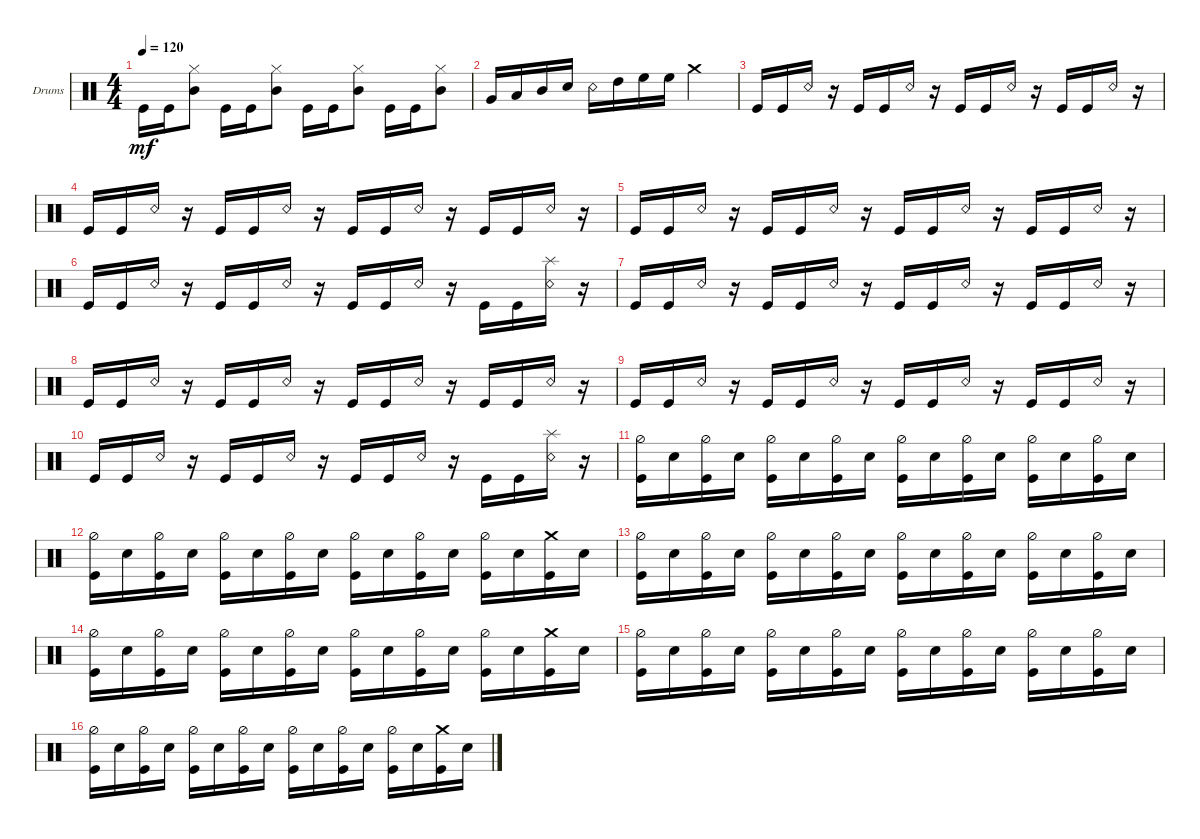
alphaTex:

\defaultSystemsLayout 4
\bracketExtendMode groupsimilarinstruments
\firstSystemTrackNameOrientation horizontal
\otherSystemsTrackNameOrientation horizontal
\track ("Drumkit" "Drums") {instrument percussion}
\staff {score}
\articulation defaults
\ts (4 4)
\tempo 120
\clef neutral
\ks c "Kick (hit)".16{dy mf} "Kick (hit)".16
("Mid Tom (hit)" "Hi-Hat (closed)").8 "Kick (hit)".16 "Kick (hit)".16 ("Mid Tom (hit)" "Hi-Hat (closed)").8 "Kick (hit)".16 "Kick (hit)".16 ("Mid Tom (hit)" "Hi-Hat (closed)").8 "Kick (hit)".16 "Kick (hit)".16 ("Mid Tom (hit)" "Hi-Hat (closed)").8 |
"Very Low Tom (hit)".16 "Low Tom (hit)".16 "Mid Tom (hit)".16 "Snare (hit) 2".16 "Snare (rim shot)".16 "High Tom (hit)".16 "High Floor Tom (hit)".16 "High Floor Tom (hit)".16 "Crash medium (hit)".2 |
"Kick (hit)".16 "Kick (hit)".16 "Snare (rim shot)".16 r.16 "Kick (hit)".16 "Kick (hit)".16 "Snare (rim shot)".16 r.16 "Kick (hit)".16 "Kick (hit)".16 "Snare (rim shot)".16 r.16 "Kick (hit)".16 "Kick (hit)".16 "Snare (rim shot)".16 r.16 |
"Kick (hit)".16 "Kick (hit)".16 "Snare (rim shot)".16 r.16 "Kick (hit)".16 "Kick (hit)".16 "Snare (rim shot)".16 r.16 "Kick (hit)".16 "Kick (hit)".16 "Snare (rim shot)".16 r.16 "Kick (hit)".16 "Kick (hit)".16 "Snare (rim shot)".16 r.16 |
"Kick (hit)".16 "Kick (hit)".16 "Snare (rim shot)".16 r.16 "Kick (hit)".16 "Kick (hit)".16 "Snare (rim shot)".16 r.16 "Kick (hit)".16 "Kick (hit)".16 "Snare (rim shot)".16 r.16 "Kick (hit)".16 "Kick (hit)".16 "Snare (rim shot)".16 r.16 |
"Kick (hit)".16 "Kick (hit)".16 "Snare (rim shot)".16 r.16 "Kick (hit)".16 "Kick (hit)".16 "Snare (rim shot)".16 r.16 "Kick (hit)".16 "Kick (hit)".16 "Snare (rim shot)".16 r.16 "Kick (hit)".16 "Kick (hit)".16 ("Snare (rim shot)" "Splash (hit)").16 r.16 |
"Kick (hit)".16 "Kick (hit)".16 "Snare (rim shot)".16 r.16 "Kick (hit)".16 "Kick (hit)".16 "Snare (rim shot)".16 r.16 "Kick (hit)".16 "Kick (hit)".16 "Snare (rim shot)".16 r.16 "Kick (hit)".16 "Kick (hit)".16 "Snare (rim shot)".16 r.16 |
"Kick (hit)".16 "Kick (hit)".16 "Snare (rim shot)".16 r.16 "Kick (hit)".16 "Kick (hit)".16 "Snare (rim shot)".16 r.16 "Kick (hit)".16 "Kick (hit)".16 "Snare (rim shot)".16 r.16 "Kick (hit)".16 "Kick (hit)".16 "Snare (rim shot)".16 r.16 |
"Kick (hit)".16 "Kick (hit)".16 "Snare (rim shot)".16 r.16 "Kick (hit)".16 "Kick (hit)".16 "Snare (rim shot)".16 r.16 "Kick (hit)".16 "Kick (hit)".16 "Snare (rim shot)".16 r.16 "Kick (hit)".16 "Kick (hit)".16 "Snare (rim shot)".16 r.16 |
"Kick (hit)".16 "Kick (hit)".16 "Snare (rim shot)".16 r.16 "Kick (hit)".16 "Kick (hit)".16 "Snare (rim shot)".16 r.16 "Kick (hit)".16 "Kick (hit)".16 "Snare (rim shot)".16 r.16 "Kick (hit)".16 "Kick (hit)".16 ("Snare (rim shot)" "Splash (hit)").16 r.16 |
("Kick (hit)" "Hi-Hat (half)").16 "Snare (hit) 2".16 ("Kick (hit)" "Hi-Hat (half)").16 "Snare (hit) 2".16 ("Kick (hit)" "Hi-Hat (half)").16 "Snare (hit) 2".16 ("Kick (hit)" "Hi-Hat (half)").16 "Snare (hit) 2".16 ("Kick (hit)" "Hi-Hat (half)").16 "Snare (hit) 2".16 ("Kick (hit)" "Hi-Hat (half)").16 "Snare (hit) 2".16 ("Kick (hit)" "Hi-Hat (half)").16 "Snare (hit) 2".16 ("Kick (hit)" "Hi-Hat (half)").16 "Snare (hit) 2".16 |
("Kick (hit)" "Hi-Hat (half)").16 "Snare (hit) 2".16 ("Kick (hit)" "Hi-Hat (half)").16 "Snare (hit) 2".16 ("Kick (hit)" "Hi-Hat (half)").16 "Snare (hit) 2".16 ("Kick (hit)" "Hi-Hat (half)").16 "Snare (hit) 2".16 ("Kick (hit)" "Hi-Hat (half)").16 "Snare (hit) 2".16 ("Kick (hit)" "Hi-Hat (half)").16 "Snare (hit) 2".16 ("Kick (hit)" "Hi-Hat (half)").16 "Snare (hit) 2".16 ("Kick (hit)" "Crash medium (hit)").16 "Snare (hit) 2".16 |
("Kick (hit)" "Hi-Hat (half)").16 "Snare (hit) 2".16 ("Kick (hit)" "Hi-Hat (half)").16 "Snare (hit) 2".16 ("Kick (hit)" "Hi-Hat (half)").16 "Snare (hit) 2".16 ("Kick (hit)" "Hi-Hat (half)").16 "Snare (hit) 2".16 ("Kick (hit)" "Hi-Hat (half)").16 "Snare (hit) 2".16 ("Kick (hit)" "Hi-Hat (half)").16 "Snare (hit) 2".16 ("Kick (hit)" "Hi-Hat (half)").16 "Snare (hit) 2".16 ("Kick (hit)" "Hi-Hat (half)").16 "Snare (hit) 2".16 |
("Kick (hit)" "Hi-Hat (half)").16 "Snare (hit) 2".16 ("Kick (hit)" "Hi-Hat (half)").16 "Snare (hit) 2".16 ("Kick (hit)" "Hi-Hat (half)").16 "Snare (hit) 2".16 ("Kick (hit)" "Hi-Hat (half)").16 "Snare (hit) 2".16 ("Kick (hit)" "Hi-Hat (half)").16 "Snare (hit) 2".16 ("Kick (hit)" "Hi-Hat (half)").16 "Snare (hit) 2".16 ("Kick (hit)" "Hi-Hat (half)").16 "Snare (hit) 2".16 ("Kick (hit)" "Crash medium (hit)").16 "Snare (hit) 2".16 |
("Kick (hit)" "Hi-Hat (half)").16 "Snare (hit) 2".16 ("Kick (hit)" "Hi-Hat (half)").16 "Snare (hit) 2".16 ("Kick (hit)" "Hi-Hat (half)").16 "Snare (hit) 2".16 ("Kick (hit)" "Hi-Hat (half)").16 "Snare (hit) 2".16 ("Kick (hit)" "Hi-Hat (half)").16 "Snare (hit) 2".16 ("Kick (hit)" "Hi-Hat (half)").16 "Snare (hit) 2".16 ("Kick (hit)" "Hi-Hat (half)").16 "Snare (hit) 2".16 ("Kick (hit)" "Hi-Hat (half)").16 "Snare (hit) 2".16 |
("Kick (hit)" "Hi-Hat (half)").16 "Snare (hit) 2".16 ("Kick (hit)" "Hi-Hat (half)").16 "Snare (hit) 2".16 ("Kick (hit)" "Hi-Hat (half)").16 "Snare (hit) 2".16 ("Kick (hit)" "Hi-Hat (half)").16 "Snare (hit) 2".16 ("Kick (hit)" "Hi-Hat (half)").16 "Snare (hit) 2".16 ("Kick (hit)" "Hi-Hat (half)").16 "Snare (hit) 2".16 ("Kick (hit)" "Hi-Hat (half)").16 "Snare (hit) 2".16 ("Kick (hit)" "Crash medium (hit)").16 "Snare (hit) 2".16
